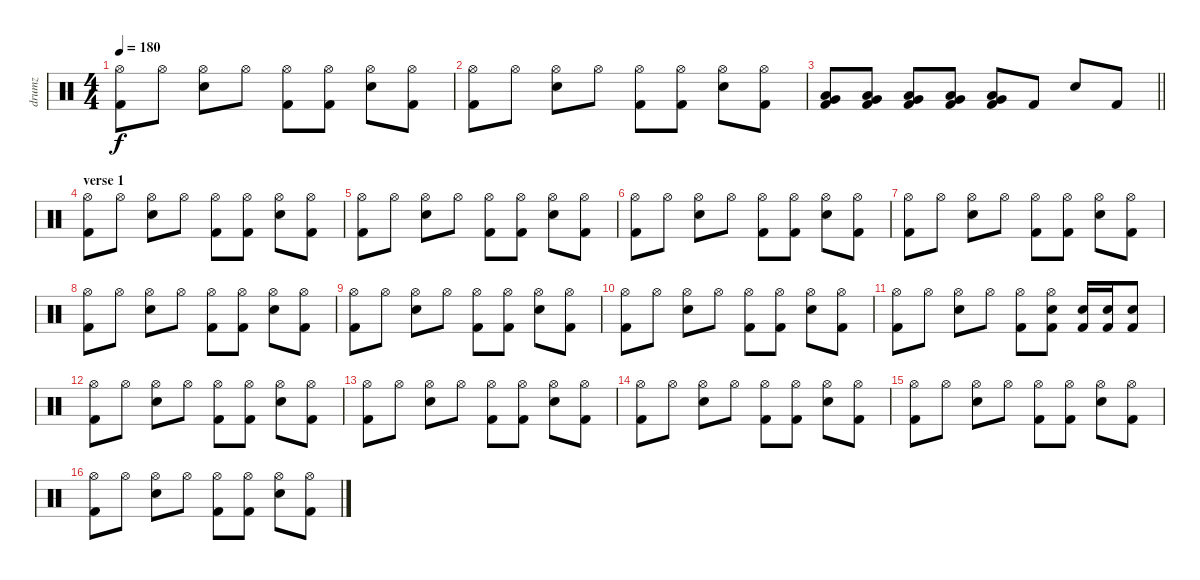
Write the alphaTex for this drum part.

\track ("drumz" "drumz") {instrument percussion}
\staff {score}
\articulation defaults
\ts (4 4)
\tempo 180
\clef neutral
\ks c
("Hi-Hat (open)" "Kick (hit) 2").8{dy f} "Hi-Hat (open)".8 ("Hi-Hat (open)" "Electric Snare (hit)").8 "Hi-Hat (open)".8 ("Hi-Hat (open)" "Kick (hit) 2").8 ("Hi-Hat (open)" "Kick (hit) 2").8 ("Hi-Hat (open)" "Electric Snare (hit)").8 ("Hi-Hat (open)" "Kick (hit) 2").8 |
("Hi-Hat (open)" "Kick (hit) 2").8 "Hi-Hat (open)".8 ("Hi-Hat (open)" "Electric Snare (hit)").8 "Hi-Hat (open)".8 ("Hi-Hat (open)" "Kick (hit) 2").8 ("Hi-Hat (open)" "Kick (hit) 2").8 ("Hi-Hat (open)" "Electric Snare (hit)").8 ("Hi-Hat (open)" "Kick (hit) 2").8 |
\barLineRight lightlight
("Low Tom (hit)" "Very Low Tom (hit)" "Kick (hit) 2").8 ("Low Tom (hit)" "Very Low Tom (hit)" "Kick (hit) 2").8 ("Low Tom (hit)" "Very Low Tom (hit)" "Kick (hit) 2").8 ("Low Tom (hit)" "Very Low Tom (hit)" "Kick (hit) 2").8 ("Very Low Tom (hit)" "Low Floor Tom (hit)" "Kick (hit) 2").8 "Kick (hit) 2".8 "Electric Snare (hit)".8 "Kick (hit) 2".8 |
\section ("" "verse 1")
("Hi-Hat (open)" "Kick (hit) 2").8 "Hi-Hat (open)".8 ("Hi-Hat (open)" "Electric Snare (hit)").8 "Hi-Hat (open)".8 ("Hi-Hat (open)" "Kick (hit) 2").8 ("Hi-Hat (open)" "Kick (hit) 2").8 ("Hi-Hat (open)" "Electric Snare (hit)").8 ("Hi-Hat (open)" "Kick (hit) 2").8 |
("Hi-Hat (open)" "Kick (hit) 2").8 "Hi-Hat (open)".8 ("Hi-Hat (open)" "Electric Snare (hit)").8 "Hi-Hat (open)".8 ("Hi-Hat (open)" "Kick (hit) 2").8 ("Hi-Hat (open)" "Kick (hit) 2").8 ("Hi-Hat (open)" "Electric Snare (hit)").8 ("Hi-Hat (open)" "Kick (hit) 2").8 |
("Hi-Hat (open)" "Kick (hit) 2").8 "Hi-Hat (open)".8 ("Hi-Hat (open)" "Electric Snare (hit)").8 "Hi-Hat (open)".8 ("Hi-Hat (open)" "Kick (hit) 2").8 ("Hi-Hat (open)" "Kick (hit) 2").8 ("Hi-Hat (open)" "Electric Snare (hit)").8 ("Hi-Hat (open)" "Kick (hit) 2").8 |
("Hi-Hat (open)" "Kick (hit) 2").8 "Hi-Hat (open)".8 ("Hi-Hat (open)" "Electric Snare (hit)").8 "Hi-Hat (open)".8 ("Hi-Hat (open)" "Kick (hit) 2").8 ("Hi-Hat (open)" "Kick (hit) 2").8 ("Hi-Hat (open)" "Electric Snare (hit)").8 ("Hi-Hat (open)" "Kick (hit) 2").8 |
("Hi-Hat (open)" "Kick (hit) 2").8 "Hi-Hat (open)".8 ("Hi-Hat (open)" "Electric Snare (hit)").8 "Hi-Hat (open)".8 ("Hi-Hat (open)" "Kick (hit) 2").8 ("Hi-Hat (open)" "Kick (hit) 2").8 ("Hi-Hat (open)" "Electric Snare (hit)").8 ("Hi-Hat (open)" "Kick (hit) 2").8 |
("Hi-Hat (open)" "Kick (hit) 2").8 "Hi-Hat (open)".8 ("Hi-Hat (open)" "Electric Snare (hit)").8 "Hi-Hat (open)".8 ("Hi-Hat (open)" "Kick (hit) 2").8 ("Hi-Hat (open)" "Kick (hit) 2").8 ("Hi-Hat (open)" "Electric Snare (hit)").8 ("Hi-Hat (open)" "Kick (hit) 2").8 |
("Hi-Hat (open)" "Kick (hit) 2").8 "Hi-Hat (open)".8 ("Hi-Hat (open)" "Electric Snare (hit)").8 "Hi-Hat (open)".8 ("Hi-Hat (open)" "Kick (hit) 2").8 ("Hi-Hat (open)" "Kick (hit) 2").8 ("Hi-Hat (open)" "Electric Snare (hit)").8 ("Hi-Hat (open)" "Kick (hit) 2").8 |
("Hi-Hat (open)" "Kick (hit) 2").8 "Hi-Hat (open)".8 ("Hi-Hat (open)" "Electric Snare (hit)").8 "Hi-Hat (open)".8 ("Hi-Hat (open)" "Kick (hit) 2").8 ("Hi-Hat (open)" "Electric Snare (hit)" "Kick (hit) 2").8 ("Electric Snare (hit)" "Kick (hit) 2").16 ("Electric Snare (hit)" "Kick (hit) 2").16 ("Electric Snare (hit)" "Kick (hit) 2").8 |
("Hi-Hat (open)" "Kick (hit) 2").8 "Hi-Hat (open)".8 ("Hi-Hat (open)" "Electric Snare (hit)").8 "Hi-Hat (open)".8 ("Hi-Hat (open)" "Kick (hit) 2").8 ("Hi-Hat (open)" "Kick (hit) 2").8 ("Hi-Hat (open)" "Electric Snare (hit)").8 ("Hi-Hat (open)" "Kick (hit) 2").8 |
("Hi-Hat (open)" "Kick (hit) 2").8 "Hi-Hat (open)".8 ("Hi-Hat (open)" "Electric Snare (hit)").8 "Hi-Hat (open)".8 ("Hi-Hat (open)" "Kick (hit) 2").8 ("Hi-Hat (open)" "Kick (hit) 2").8 ("Hi-Hat (open)" "Electric Snare (hit)").8 ("Hi-Hat (open)" "Kick (hit) 2").8 |
("Hi-Hat (open)" "Kick (hit) 2").8 "Hi-Hat (open)".8 ("Hi-Hat (open)" "Electric Snare (hit)").8 "Hi-Hat (open)".8 ("Hi-Hat (open)" "Kick (hit) 2").8 ("Hi-Hat (open)" "Kick (hit) 2").8 ("Hi-Hat (open)" "Electric Snare (hit)").8 ("Hi-Hat (open)" "Kick (hit) 2").8 |
("Hi-Hat (open)" "Kick (hit) 2").8 "Hi-Hat (open)".8 ("Hi-Hat (open)" "Electric Snare (hit)").8 "Hi-Hat (open)".8 ("Hi-Hat (open)" "Kick (hit) 2").8 ("Hi-Hat (open)" "Kick (hit) 2").8 ("Hi-Hat (open)" "Electric Snare (hit)").8 ("Hi-Hat (open)" "Kick (hit) 2").8 |
("Hi-Hat (open)" "Kick (hit) 2").8 "Hi-Hat (open)".8 ("Hi-Hat (open)" "Electric Snare (hit)").8 "Hi-Hat (open)".8 ("Hi-Hat (open)" "Kick (hit) 2").8 ("Hi-Hat (open)" "Kick (hit) 2").8 ("Hi-Hat (open)" "Electric Snare (hit)").8 ("Hi-Hat (open)" "Kick (hit) 2").8
